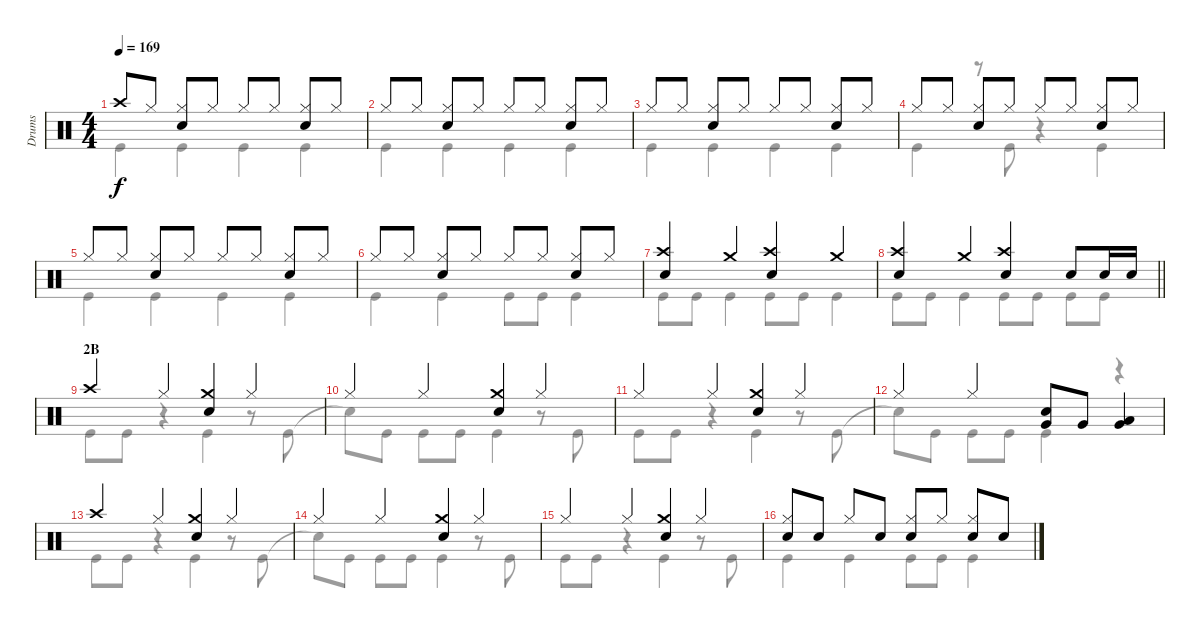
\track ("Drums" "Drums") {instrument percussion}
\staff {score}
\articulation defaults
\voice
\ts (4 4)
\tempo 169
\clef neutral
\ks c "Crash high (hit)".8{dy f} "Hi-Hat (closed)".8
("Hi-Hat (closed)" "Snare (hit) 2").8 "Hi-Hat (closed)".8 "Hi-Hat (closed)".8 "Hi-Hat (closed)".8 ("Hi-Hat (closed)" "Snare (hit) 2").8 "Hi-Hat (closed)".8 |
"Hi-Hat (closed)".8 "Hi-Hat (closed)".8 ("Hi-Hat (closed)" "Snare (hit) 2").8 "Hi-Hat (closed)".8 "Hi-Hat (closed)".8 "Hi-Hat (closed)".8 ("Hi-Hat (closed)" "Snare (hit) 2").8 "Hi-Hat (closed)".8 |
"Hi-Hat (closed)".8 "Hi-Hat (closed)".8 ("Hi-Hat (closed)" "Snare (hit) 2").8 "Hi-Hat (closed)".8 "Hi-Hat (closed)".8 "Hi-Hat (closed)".8 ("Hi-Hat (closed)" "Snare (hit) 2").8 "Hi-Hat (closed)".8 |
"Hi-Hat (closed)".8 "Hi-Hat (closed)".8 ("Hi-Hat (closed)" "Snare (hit) 2").8 "Hi-Hat (closed)".8 "Hi-Hat (closed)".8 "Hi-Hat (closed)".8 ("Hi-Hat (closed)" "Snare (hit) 2").8 "Hi-Hat (closed)".8 |
"Hi-Hat (closed)".8 "Hi-Hat (closed)".8 ("Hi-Hat (closed)" "Snare (hit) 2").8 "Hi-Hat (closed)".8 "Hi-Hat (closed)".8 "Hi-Hat (closed)".8 ("Hi-Hat (closed)" "Snare (hit) 2").8 "Hi-Hat (closed)".8 |
"Hi-Hat (closed)".8 "Hi-Hat (closed)".8 ("Hi-Hat (closed)" "Snare (hit) 2").8 "Hi-Hat (closed)".8 "Hi-Hat (closed)".8 "Hi-Hat (closed)".8 ("Hi-Hat (closed)" "Snare (hit) 2").8 "Hi-Hat (closed)".8 |
("Crash high (hit)" "Snare (hit) 2").4 "Crash medium (hit)".4 ("Crash high (hit)" "Snare (hit) 2").4 "Crash medium (hit)".4 |
\barLineRight lightlight
("Crash high (hit)" "Snare (hit) 2").4 "Crash medium (hit)".4 ("Crash high (hit)" "Snare (hit) 2").4 "Snare (hit) 2".8 "Snare (hit) 2".16 "Snare (hit) 2".16 |
\section ("" "2B")
"Crash high (hit)".4 "Hi-Hat (closed)".4 ("Crash medium (hit)" "Snare (hit) 2").4 "Hi-Hat (closed)".4 |
"Hi-Hat (closed)".4 "Hi-Hat (closed)".4 ("Crash medium (hit)" "Snare (hit) 2").4 "Hi-Hat (closed)".4 |
"Hi-Hat (closed)".4 "Hi-Hat (closed)".4 ("Crash medium (hit)" "Snare (hit) 2").4 "Hi-Hat (closed)".4 |
"Hi-Hat (closed)".4 "Hi-Hat (closed)".4 ("Snare (hit) 2" "Very Low Tom (hit)").8 "Very Low Tom (hit)".8 ("Very Low Tom (hit)" "Low Tom (hit)").4 |
"Crash high (hit)".4 "Hi-Hat (closed)".4 ("Crash medium (hit)" "Snare (hit) 2").4 "Hi-Hat (closed)".4 |
"Hi-Hat (closed)".4 "Hi-Hat (closed)".4 ("Crash medium (hit)" "Snare (hit) 2").4 "Hi-Hat (closed)".4 |
"Hi-Hat (closed)".4 "Hi-Hat (closed)".4 ("Crash medium (hit)" "Snare (hit) 2").4 "Hi-Hat (closed)".4 |
("Hi-Hat (closed)" "Snare (hit) 2").8 "Snare (hit) 2".8 "Hi-Hat (closed)".8 "Snare (hit) 2".8 ("Hi-Hat (closed)" "Snare (hit) 2").8 "Hi-Hat (closed)".8 ("Hi-Hat (closed)" "Snare (hit) 2").8 "Snare (hit) 2".8
\voice
\clef neutral
\ottava regular
\simile none
\ks c "Kick (hit)".4{dy f} "Kick (hit)".4 "Kick (hit)".4 "Kick (hit)".4
|
"Kick (hit)".4 "Kick (hit)".4 "Kick (hit)".4 "Kick (hit)".4 |
"Kick (hit)".4 "Kick (hit)".4 "Kick (hit)".4 "Kick (hit)".4 |
"Kick (hit)".4 r.8 "Kick (hit)".8 r.4 "Kick (hit)".4 |
"Kick (hit)".4 "Kick (hit)".4 "Kick (hit)".4 "Kick (hit)".4 |
"Kick (hit)".4 "Kick (hit)".4 "Kick (hit)".8 "Kick (hit)".8 "Kick (hit)".4 |
"Kick (hit)".8 "Kick (hit)".8 "Kick (hit)".4 "Kick (hit)".8 "Kick (hit)".8 "Kick (hit)".4 |
\barLineRight lightlight "Kick (hit)".8 "Kick (hit)".8 "Kick (hit)".4 "Kick (hit)".8 "Kick (hit)".8 "Kick (hit)".8 "Kick (hit)".8
|
"Kick (hit)".8 "Kick (hit)".8 r.4 "Kick (hit)".4 r.8 "Kick (hit)".8 |
"Snare (hit)"{t}.8 "Kick (hit)".8 "Kick (hit)".8 "Kick (hit)".8 "Kick (hit)".4 r.8 "Kick (hit)".8 |
"Kick (hit)".8 "Kick (hit)".8 r.4 "Kick (hit)".4 r.8 "Kick (hit)".8 |
"Snare (hit)"{t}.8 "Kick (hit)".8 "Kick (hit)".8 "Kick (hit)".8 "Kick (hit)".4 r.4 |
"Kick (hit)".8 "Kick (hit)".8 r.4 "Kick (hit)".4 r.8 "Kick (hit)".8 |
"Snare (hit)"{t}.8 "Kick (hit)".8 "Kick (hit)".8 "Kick (hit)".8 "Kick (hit)".4 r.8 "Kick (hit)".8 |
"Kick (hit)".8 "Kick (hit)".8 r.4 "Kick (hit)".4 r.8 "Kick (hit)".8 |
"Kick (hit)".4 "Kick (hit)".4 "Kick (hit)".8 "Kick (hit)".8 "Kick (hit)".4
